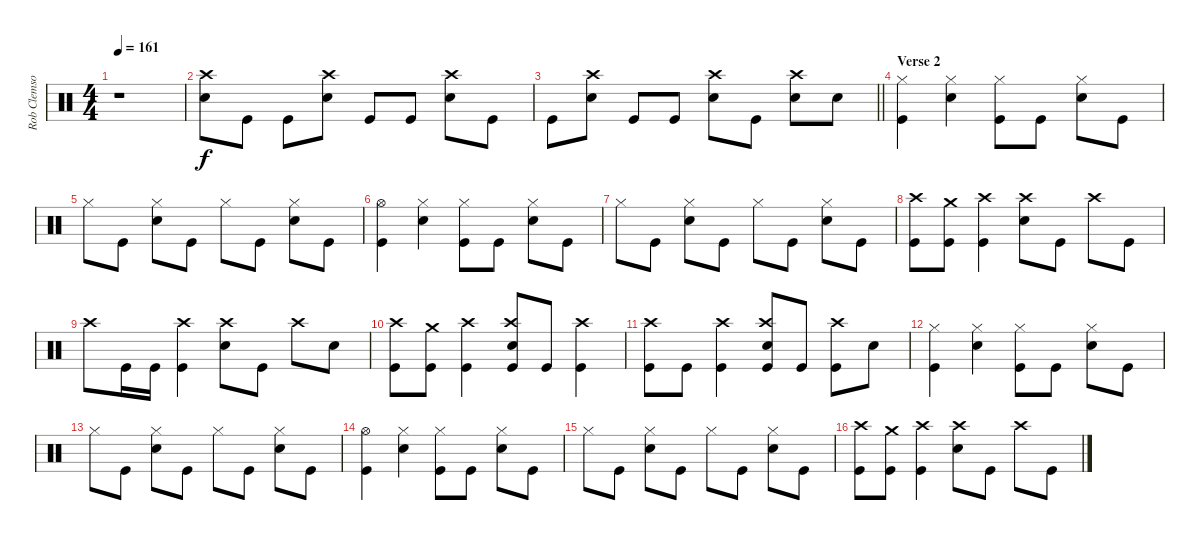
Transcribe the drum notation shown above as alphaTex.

\track ("Rob Clemson (Drums)" "Rob Clemso") {instrument percussion}
\staff {score}
\articulation defaults
\ts (4 4)
\tempo 161
\clef neutral
\ks c
r.1{dy f} |
("Electric Snare (hit)" "Crash high (hit)").8 "Kick (hit)".8 "Kick (hit)".8 ("Crash high (hit)" "Electric Snare (hit)").8 "Kick (hit)".8 "Kick (hit)".8 ("Crash high (hit)" "Electric Snare (hit)").8 "Kick (hit)".8 |
\barLineRight lightlight "Kick (hit)".8
("Crash high (hit)" "Electric Snare (hit)").8 "Kick (hit)".8 "Kick (hit)".8 ("Crash high (hit)" "Electric Snare (hit)").8 "Kick (hit)".8 ("Crash high (hit)" "Electric Snare (hit)").8 "Electric Snare (hit)".8 |
\section ("" "Verse 2")
("Kick (hit)" "Hi-Hat (closed)").4 ("Hi-Hat (closed)" "Electric Snare (hit)").4 ("Kick (hit)" "Hi-Hat (closed)").8 "Kick (hit)".8 ("Electric Snare (hit)" "Hi-Hat (closed)").8 "Kick (hit)".8 |
"Hi-Hat (closed)".8 "Kick (hit)".8 ("Electric Snare (hit)" "Hi-Hat (closed)").8 "Kick (hit)".8 "Hi-Hat (closed)".8 "Kick (hit)".8 ("Electric Snare (hit)" "Hi-Hat (closed)").8 "Kick (hit)".8 |
("Kick (hit)" "Hi-Hat (open)").4 ("Electric Snare (hit)" "Hi-Hat (closed)").4 ("Kick (hit)" "Hi-Hat (closed)").8 "Kick (hit)".8 ("Electric Snare (hit)" "Hi-Hat (closed)").8 "Kick (hit)".8 |
"Hi-Hat (closed)".8 "Kick (hit)".8 ("Electric Snare (hit)" "Hi-Hat (closed)").8 "Kick (hit)".8 "Hi-Hat (closed)".8 "Kick (hit)".8 ("Electric Snare (hit)" "Hi-Hat (closed)").8 "Kick (hit)".8 |
("Kick (hit)" "Crash high (hit)").8 ("Kick (hit)" "Crash medium (hit)").8 ("Kick (hit)" "Crash high (hit)").4 ("Crash high (hit)" "Electric Snare (hit)").8 "Kick (hit)".8 "Crash high (hit)".8 "Kick (hit)".8 |
"Crash high (hit)".8 "Kick (hit)".16 "Kick (hit)".16 ("Kick (hit)" "Crash high (hit)").4 ("Crash high (hit)" "Electric Snare (hit)").8 "Kick (hit)".8 "Crash high (hit)".8 "Electric Snare (hit)".8 |
("Kick (hit)" "Crash high (hit)").8 ("Kick (hit)" "Crash medium (hit)").8 ("Kick (hit)" "Crash high (hit)").4 ("Crash high (hit)" "Electric Snare (hit)" "Kick (hit)").8 "Kick (hit)".8 ("Kick (hit)" "Crash high (hit)").4 |
("Kick (hit)" "Crash high (hit)").8 "Kick (hit)".8 ("Kick (hit)" "Crash high (hit)").4 ("Crash high (hit)" "Electric Snare (hit)" "Kick (hit)").8 "Kick (hit)".8 ("Kick (hit)" "Crash high (hit)").8 "Electric Snare (hit)".8 |
("Kick (hit)" "Hi-Hat (closed)").4 ("Hi-Hat (closed)" "Electric Snare (hit)").4 ("Kick (hit)" "Hi-Hat (closed)").8 "Kick (hit)".8 ("Electric Snare (hit)" "Hi-Hat (closed)").8 "Kick (hit)".8 |
"Hi-Hat (closed)".8 "Kick (hit)".8 ("Electric Snare (hit)" "Hi-Hat (closed)").8 "Kick (hit)".8 "Hi-Hat (closed)".8 "Kick (hit)".8 ("Electric Snare (hit)" "Hi-Hat (closed)").8 "Kick (hit)".8 |
("Kick (hit)" "Hi-Hat (open)").4 ("Electric Snare (hit)" "Hi-Hat (closed)").4 ("Kick (hit)" "Hi-Hat (closed)").8 "Kick (hit)".8 ("Electric Snare (hit)" "Hi-Hat (closed)").8 "Kick (hit)".8 |
"Hi-Hat (closed)".8 "Kick (hit)".8 ("Electric Snare (hit)" "Hi-Hat (closed)").8 "Kick (hit)".8 "Hi-Hat (closed)".8 "Kick (hit)".8 ("Electric Snare (hit)" "Hi-Hat (closed)").8 "Kick (hit)".8 |
("Kick (hit)" "Crash high (hit)").8 ("Kick (hit)" "Crash medium (hit)").8 ("Kick (hit)" "Crash high (hit)").4 ("Crash high (hit)" "Electric Snare (hit)").8 "Kick (hit)".8 "Crash high (hit)".8 "Kick (hit)".8
